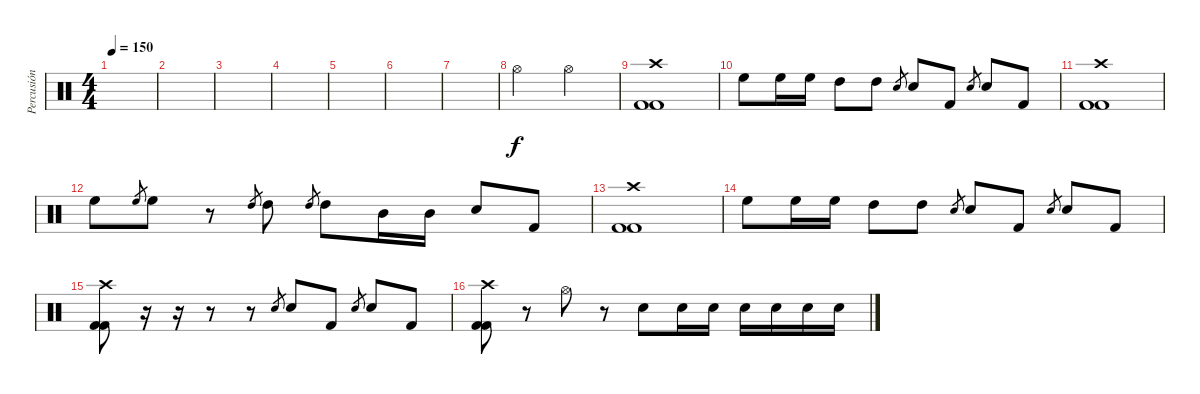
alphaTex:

\track ("Percusión" "Percusión") {instrument percussion}
\staff {score}
\articulation defaults
\ts (4 4)
\tempo 150
\clef neutral
\ks c
|
|
|
|
|
|
|
"Hi-Hat (open)".2 "Hi-Hat (open)".2 |
("Crash high (hit)" "Kick (hit) 2" "Kick (hit) 2").1 |
"High Floor Tom (hit)".8 "High Floor Tom (hit)".16 "High Floor Tom (hit)".16 "High Tom (hit)".8 "High Tom (hit)".8 "Electric Snare (hit)".8{gr} "Electric Snare (hit)".8 "Kick (hit) 2".8 "Electric Snare (hit)".8{gr} "Electric Snare (hit)".8 "Kick (hit) 2".8 |
("Crash high (hit)" "Kick (hit) 2" "Kick (hit) 2").1 |
"High Floor Tom (hit)".8 "High Floor Tom (hit)".8{gr} "High Floor Tom (hit)".8 r.8 "High Tom (hit)".8{gr} "High Tom (hit)".8 "High Tom (hit)".8{gr} "High Tom (hit)".8 "Mid Tom (hit)".16 "Mid Tom (hit)".16 "Electric Snare (hit)".8 "Kick (hit) 2".8 |
("Crash high (hit)" "Kick (hit) 2" "Kick (hit) 2").1 |
"High Floor Tom (hit)".8 "High Floor Tom (hit)".16 "High Floor Tom (hit)".16 "High Tom (hit)".8 "High Tom (hit)".8 "Electric Snare (hit)".8{gr} "Electric Snare (hit)".8 "Kick (hit) 2".8 "Electric Snare (hit)".8{gr} "Electric Snare (hit)".8 "Kick (hit) 2".8 |
("Crash high (hit)" "Kick (hit) 2" "Kick (hit) 2").8 r.16 r.16 r.8 r.8 "Electric Snare (hit)".8{gr} "Electric Snare (hit)".8 "Kick (hit) 2".8 "Electric Snare (hit)".8{gr} "Electric Snare (hit)".8 "Kick (hit) 2".8 |
("Crash high (hit)" "Kick (hit) 2" "Kick (hit) 2").8 r.8 "Hi-Hat (open)".8 r.8 "Electric Snare (hit)".8 "Electric Snare (hit)".16 "Electric Snare (hit)".16 "Electric Snare (hit)".16 "Electric Snare (hit)".16 "Electric Snare (hit)".16 "Electric Snare (hit)".16
